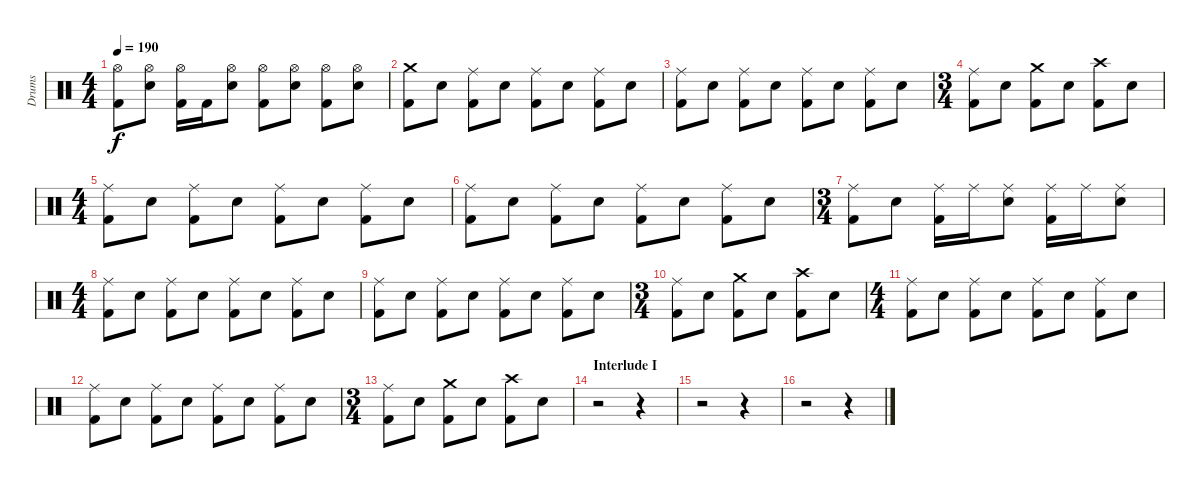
\track ("Drums" "Drums") {instrument percussion}
\staff {score}
\articulation defaults
\ts (4 4)
\tempo 190
\clef neutral
\ks c
("Kick (hit) 2" "Hi-Hat (open)").8{dy f} ("Electric Snare (hit)" "Hi-Hat (open)").8 ("Kick (hit) 2" "Hi-Hat (open)").16 "Kick (hit) 2".16 ("Electric Snare (hit)" "Hi-Hat (open)").8 ("Kick (hit) 2" "Hi-Hat (open)").8 ("Electric Snare (hit)" "Hi-Hat (open)").8 ("Kick (hit) 2" "Hi-Hat (open)").8 ("Electric Snare (hit)" "Hi-Hat (open)").8 |
("Kick (hit) 2" "Crash medium (hit)").8 "Electric Snare (hit)".8 ("Kick (hit) 2" "Ride (middle)").8 "Electric Snare (hit)".8 ("Kick (hit) 2" "Ride (middle)").8 "Electric Snare (hit)".8 ("Kick (hit) 2" "Ride (middle)").8 "Electric Snare (hit)".8 |
("Kick (hit) 2" "Ride (middle)").8 "Electric Snare (hit)".8 ("Kick (hit) 2" "Ride (middle)").8 "Electric Snare (hit)".8 ("Kick (hit) 2" "Ride (middle)").8 "Electric Snare (hit)".8 ("Kick (hit) 2" "Ride (middle)").8 "Electric Snare (hit)".8 |
\ts (3 4)
("Kick (hit) 2" "Ride (middle)").8 "Electric Snare (hit)".8 ("Kick (hit) 2" "Crash medium (hit)").8 "Electric Snare (hit)".8 ("Kick (hit) 2" "Crash high (hit)").8 "Electric Snare (hit)".8 |
\ts (4 4)
("Kick (hit) 2" "Ride (middle)").8 "Electric Snare (hit)".8 ("Kick (hit) 2" "Ride (middle)").8 "Electric Snare (hit)".8 ("Kick (hit) 2" "Ride (middle)").8 "Electric Snare (hit)".8 ("Kick (hit) 2" "Ride (middle)").8 "Electric Snare (hit)".8 |
("Kick (hit) 2" "Ride (middle)").8 "Electric Snare (hit)".8 ("Kick (hit) 2" "Ride (middle)").8 "Electric Snare (hit)".8 ("Kick (hit) 2" "Ride (middle)").8 "Electric Snare (hit)".8 ("Kick (hit) 2" "Ride (middle)").8 "Electric Snare (hit)".8 |
\ts (3 4)
("Kick (hit) 2" "Ride (middle)").8 "Electric Snare (hit)".8 ("Kick (hit) 2" "Ride (middle)").16 "Ride (middle)".16 ("Electric Snare (hit)" "Ride (middle)").8 ("Kick (hit) 2" "Ride (middle)").16 "Ride (middle)".16 ("Electric Snare (hit)" "Ride (middle)").8 |
\ts (4 4)
("Kick (hit) 2" "Ride (middle)").8 "Electric Snare (hit)".8 ("Kick (hit) 2" "Ride (middle)").8 "Electric Snare (hit)".8 ("Kick (hit) 2" "Ride (middle)").8 "Electric Snare (hit)".8 ("Kick (hit) 2" "Ride (middle)").8 "Electric Snare (hit)".8 |
("Kick (hit) 2" "Ride (middle)").8 "Electric Snare (hit)".8 ("Kick (hit) 2" "Ride (middle)").8 "Electric Snare (hit)".8 ("Kick (hit) 2" "Ride (middle)").8 "Electric Snare (hit)".8 ("Kick (hit) 2" "Ride (middle)").8 "Electric Snare (hit)".8 |
\ts (3 4)
("Kick (hit) 2" "Ride (middle)").8 "Electric Snare (hit)".8 ("Kick (hit) 2" "Crash medium (hit)").8 "Electric Snare (hit)".8 ("Kick (hit) 2" "Crash high (hit)").8 "Electric Snare (hit)".8 |
\ts (4 4)
("Kick (hit) 2" "Ride (middle)").8 "Electric Snare (hit)".8 ("Kick (hit) 2" "Ride (middle)").8 "Electric Snare (hit)".8 ("Kick (hit) 2" "Ride (middle)").8 "Electric Snare (hit)".8 ("Kick (hit) 2" "Ride (middle)").8 "Electric Snare (hit)".8 |
("Kick (hit) 2" "Ride (middle)").8 "Electric Snare (hit)".8 ("Kick (hit) 2" "Ride (middle)").8 "Electric Snare (hit)".8 ("Kick (hit) 2" "Ride (middle)").8 "Electric Snare (hit)".8 ("Kick (hit) 2" "Ride (middle)").8 "Electric Snare (hit)".8 |
\ts (3 4)
("Kick (hit) 2" "Ride (middle)").8 "Electric Snare (hit)".8 ("Kick (hit) 2" "Crash medium (hit)").8 "Electric Snare (hit)".8 ("Kick (hit) 2" "Crash high (hit)").8 "Electric Snare (hit)".8 |
\section ("" "Interlude I")
r.2 r.4 |
r.2 r.4 |
r.2 r.4
